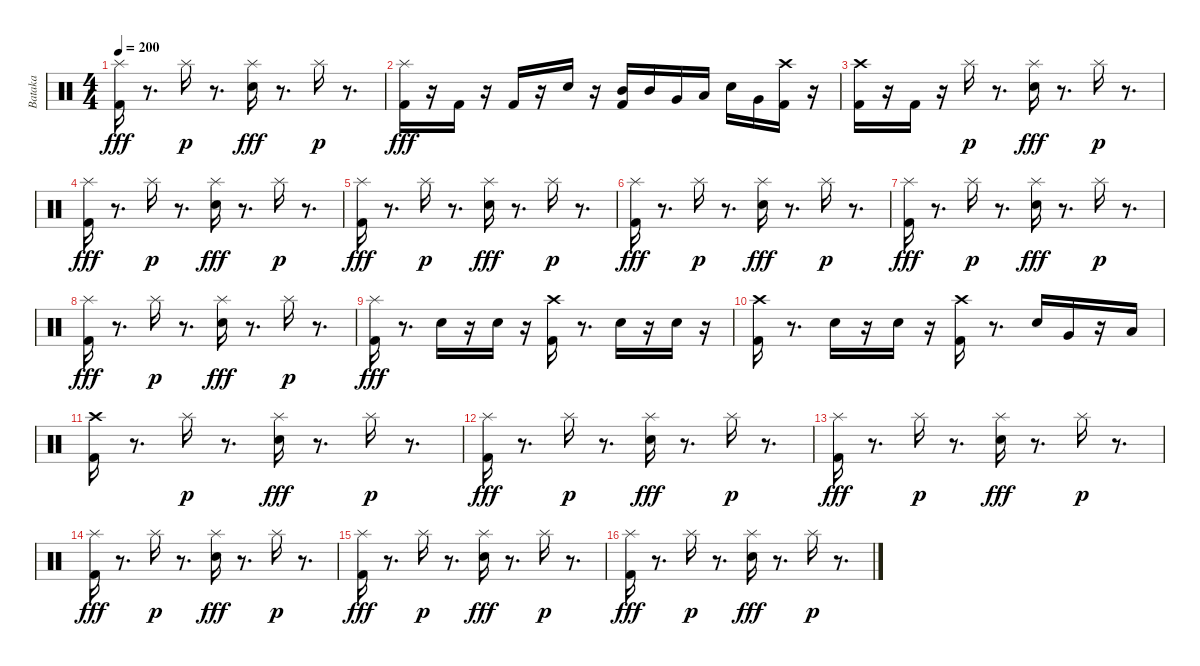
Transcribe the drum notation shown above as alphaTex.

\track ("Bataka" "Bataka") {instrument percussion}
\staff {score}
\articulation defaults
\ts (4 4)
\tempo 200
\clef neutral
\ks c
("Splash (hit)" "Kick (hit) 2").16{dy fff} r.8{d} "Splash (hit)".16{dy p} r.8{d} ("Splash (hit)" "Electric Snare (hit)").16{dy fff} r.8{d} "Splash (hit)".16{dy p} r.8{d} |
("Kick (hit) 2" "Splash (hit)").16{dy fff} r.16 "Kick (hit) 2".16 r.16 "Kick (hit) 2".16 r.16 "Electric Snare (hit)".16 r.16 ("Mid Tom (hit)" "Kick (hit) 2").16 "Mid Tom (hit)".16 "Very Low Tom (hit)".16 "Low Tom (hit)".16 "Electric Snare (hit)".16 "Very Low Tom (hit)".16 ("Crash high (hit)" "Kick (hit) 2").16 r.16 |
("Crash high (hit)" "Kick (hit) 2").16 r.16 "Kick (hit) 2".16 r.16 "Splash (hit)".16{dy p} r.8{d} ("Splash (hit)" "Electric Snare (hit)").16{dy fff} r.8{d} "Splash (hit)".16{dy p} r.8{d} |
("Splash (hit)" "Kick (hit) 2").16{dy fff} r.8{d} "Splash (hit)".16{dy p} r.8{d} ("Splash (hit)" "Electric Snare (hit)").16{dy fff} r.8{d} "Splash (hit)".16{dy p} r.8{d} |
("Splash (hit)" "Kick (hit) 2").16{dy fff} r.8{d} "Splash (hit)".16{dy p} r.8{d} ("Splash (hit)" "Electric Snare (hit)").16{dy fff} r.8{d} "Splash (hit)".16{dy p} r.8{d} |
("Splash (hit)" "Kick (hit) 2").16{dy fff} r.8{d} "Splash (hit)".16{dy p} r.8{d} ("Splash (hit)" "Electric Snare (hit)").16{dy fff} r.8{d} "Splash (hit)".16{dy p} r.8{d} |
("Splash (hit)" "Kick (hit) 2").16{dy fff} r.8{d} "Splash (hit)".16{dy p} r.8{d} ("Splash (hit)" "Electric Snare (hit)").16{dy fff} r.8{d} "Splash (hit)".16{dy p} r.8{d} |
("Splash (hit)" "Kick (hit) 2").16{dy fff} r.8{d} "Splash (hit)".16{dy p} r.8{d} ("Splash (hit)" "Electric Snare (hit)").16{dy fff} r.8{d} "Splash (hit)".16{dy p} r.8{d} |
("Splash (hit)" "Kick (hit) 2").16{dy fff} r.8{d} "Electric Snare (hit)".16 r.16 "Electric Snare (hit)".16 r.16 ("Kick (hit) 2" "Crash high (hit)").16 r.8{d} "Electric Snare (hit)".16 r.16 "Electric Snare (hit)".16 r.16 |
("Kick (hit) 2" "Crash high (hit)").16 r.8{d} "Electric Snare (hit)".16 r.16 "Electric Snare (hit)".16 r.16 ("Kick (hit) 2" "Crash high (hit)").16 r.8{d} "Electric Snare (hit)".16 "Very Low Tom (hit)".16 r.16 "Low Floor Tom (hit)".16 |
("Kick (hit) 2" "Crash high (hit)").16 r.8{d} "Splash (hit)".16{dy p} r.8{d} ("Splash (hit)" "Electric Snare (hit)").16{dy fff} r.8{d} "Splash (hit)".16{dy p} r.8{d} |
("Splash (hit)" "Kick (hit) 2").16{dy fff} r.8{d} "Splash (hit)".16{dy p} r.8{d} ("Splash (hit)" "Electric Snare (hit)").16{dy fff} r.8{d} "Splash (hit)".16{dy p} r.8{d} |
("Splash (hit)" "Kick (hit) 2").16{dy fff} r.8{d} "Splash (hit)".16{dy p} r.8{d} ("Splash (hit)" "Electric Snare (hit)").16{dy fff} r.8{d} "Splash (hit)".16{dy p} r.8{d} |
("Splash (hit)" "Kick (hit) 2").16{dy fff} r.8{d} "Splash (hit)".16{dy p} r.8{d} ("Splash (hit)" "Electric Snare (hit)").16{dy fff} r.8{d} "Splash (hit)".16{dy p} r.8{d} |
("Splash (hit)" "Kick (hit) 2").16{dy fff} r.8{d} "Splash (hit)".16{dy p} r.8{d} ("Splash (hit)" "Electric Snare (hit)").16{dy fff} r.8{d} "Splash (hit)".16{dy p} r.8{d} |
("Splash (hit)" "Kick (hit) 2").16{dy fff} r.8{d} "Splash (hit)".16{dy p} r.8{d} ("Splash (hit)" "Electric Snare (hit)").16{dy fff} r.8{d} "Splash (hit)".16{dy p} r.8{d}
